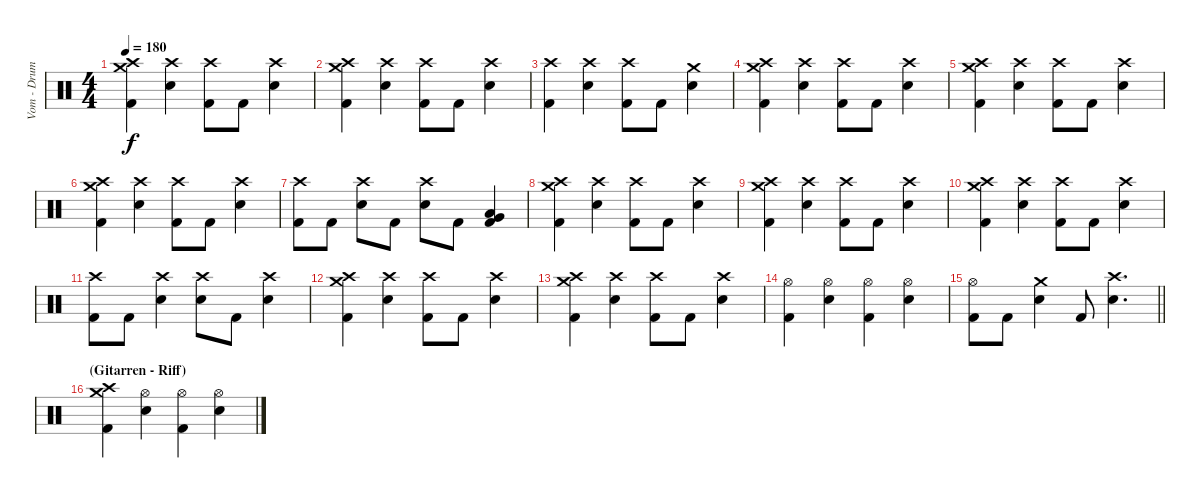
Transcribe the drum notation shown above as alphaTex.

\track ("Vom - Drums" "Vom - Drum") {instrument percussion}
\staff {score}
\articulation defaults
\ts (4 4)
\tempo 180
\clef neutral
\ks c
("Crash high (hit)" "Crash medium (hit)" "Kick (hit) 2").4{dy f} ("Crash high (hit)" "Electric Snare (hit)").4 ("Crash high (hit)" "Kick (hit) 2").8 "Kick (hit) 2".8 ("Crash high (hit)" "Electric Snare (hit)").4 |
("Crash high (hit)" "Crash medium (hit)" "Kick (hit) 2").4 ("Crash high (hit)" "Electric Snare (hit)").4 ("Crash high (hit)" "Kick (hit) 2").8 "Kick (hit) 2".8 ("Crash high (hit)" "Electric Snare (hit)").4 |
("Crash high (hit)" "Kick (hit) 2").4 ("Crash high (hit)" "Electric Snare (hit)").4 ("Crash high (hit)" "Kick (hit) 2").8 "Kick (hit) 2".8 ("Crash medium (hit)" "Electric Snare (hit)").4 |
("Crash high (hit)" "Crash medium (hit)" "Kick (hit) 2").4 ("Crash high (hit)" "Electric Snare (hit)").4 ("Crash high (hit)" "Kick (hit) 2").8 "Kick (hit) 2".8 ("Crash high (hit)" "Electric Snare (hit)").4 |
("Crash high (hit)" "Crash medium (hit)" "Kick (hit) 2").4 ("Crash high (hit)" "Electric Snare (hit)").4 ("Crash high (hit)" "Kick (hit) 2").8 "Kick (hit) 2".8 ("Crash high (hit)" "Electric Snare (hit)").4 |
("Crash high (hit)" "Crash medium (hit)" "Kick (hit) 2").4 ("Crash high (hit)" "Electric Snare (hit)").4 ("Crash high (hit)" "Kick (hit) 2").8 "Kick (hit) 2".8 ("Crash high (hit)" "Electric Snare (hit)").4 |
("Crash high (hit)" "Kick (hit) 2").8 "Kick (hit) 2".8 ("Crash high (hit)" "Electric Snare (hit)").8 "Kick (hit) 2".8 ("Crash high (hit)" "Electric Snare (hit)").8 "Kick (hit) 2".8 ("Low Tom (hit)" "Very Low Tom (hit)" "Kick (hit) 2").4 |
("Crash high (hit)" "Crash medium (hit)" "Kick (hit) 2").4 ("Crash high (hit)" "Electric Snare (hit)").4 ("Crash high (hit)" "Kick (hit) 2").8 "Kick (hit) 2".8 ("Crash high (hit)" "Electric Snare (hit)").4 |
("Crash high (hit)" "Crash medium (hit)" "Kick (hit) 2").4 ("Crash high (hit)" "Electric Snare (hit)").4 ("Crash high (hit)" "Kick (hit) 2").8 "Kick (hit) 2".8 ("Crash high (hit)" "Electric Snare (hit)").4 |
("Crash high (hit)" "Crash medium (hit)" "Kick (hit) 2").4 ("Crash high (hit)" "Electric Snare (hit)").4 ("Crash high (hit)" "Kick (hit) 2").8 "Kick (hit) 2".8 ("Crash high (hit)" "Electric Snare (hit)").4 |
("Crash high (hit)" "Kick (hit) 2").8 "Kick (hit) 2".8 ("Crash high (hit)" "Electric Snare (hit)").4 ("Crash high (hit)" "Electric Snare (hit)").8 "Kick (hit) 2".8 ("Crash high (hit)" "Electric Snare (hit)").4 |
("Crash high (hit)" "Crash medium (hit)" "Kick (hit) 2").4 ("Crash high (hit)" "Electric Snare (hit)").4 ("Crash high (hit)" "Kick (hit) 2").8 "Kick (hit) 2".8 ("Crash high (hit)" "Electric Snare (hit)").4 |
("Crash high (hit)" "Crash medium (hit)" "Kick (hit) 2").4 ("Crash high (hit)" "Electric Snare (hit)").4 ("Crash high (hit)" "Kick (hit) 2").8 "Kick (hit) 2".8 ("Crash high (hit)" "Electric Snare (hit)").4 |
("Hi-Hat (open)" "Kick (hit) 2").4 ("Hi-Hat (open)" "Electric Snare (hit)").4 ("Hi-Hat (open)" "Kick (hit) 2").4 ("Hi-Hat (open)" "Electric Snare (hit)").4 |
\barLineRight lightlight
("Hi-Hat (open)" "Kick (hit) 2").8 "Kick (hit) 2".8 ("Crash medium (hit)" "Electric Snare (hit)").4 "Kick (hit) 2".8 ("Crash high (hit)" "Electric Snare (hit)").4{d} |
\section ("" "(Gitarren - Riff)")
("Crash high (hit)" "Crash medium (hit)" "Kick (hit) 2").4 ("Hi-Hat (open)" "Electric Snare (hit)").4 ("Hi-Hat (open)" "Kick (hit) 2").4 ("Hi-Hat (open)" "Electric Snare (hit)").4
